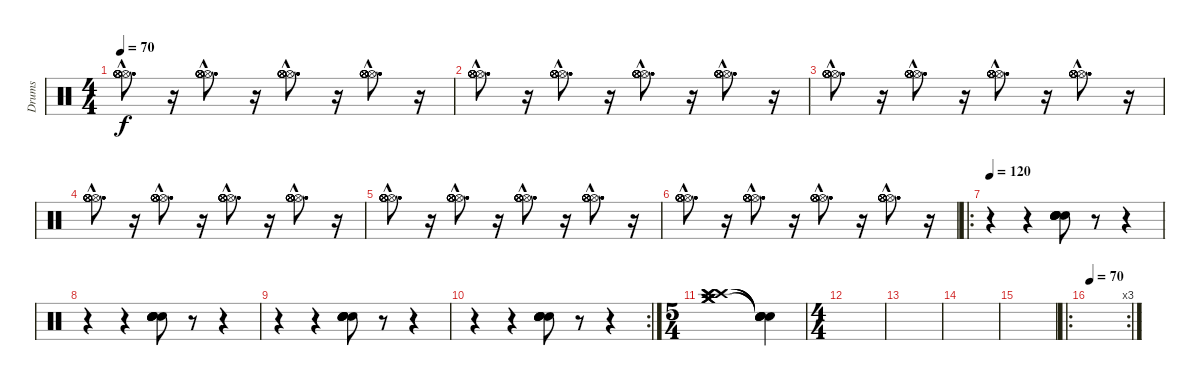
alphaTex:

\track ("Drums" "Drums") {instrument percussion}
\staff {score}
\articulation defaults
\ts (4 4)
\tempo 70
\clef neutral
\ks c
("Hi-Hat (open)"{hac} "Hi-Hat (open)"{hac} "Hi-Hat (open)"{hac} "Hi-Hat (open)"{hac} "Hi-Hat (open)"{hac} "Hi-Hat (open)"{hac}).8{d dy f} r.16 ("Hi-Hat (open)"{hac} "Hi-Hat (open)"{hac} "Hi-Hat (open)"{hac} "Hi-Hat (open)"{hac} "Hi-Hat (open)"{hac} "Hi-Hat (open)"{hac}).8{d} r.16 ("Hi-Hat (open)"{hac} "Hi-Hat (open)"{hac} "Hi-Hat (open)"{hac} "Hi-Hat (open)"{hac} "Hi-Hat (open)"{hac} "Hi-Hat (open)"{hac}).8{d} r.16 ("Hi-Hat (open)"{hac} "Hi-Hat (open)"{hac} "Hi-Hat (open)"{hac} "Hi-Hat (open)"{hac} "Hi-Hat (open)"{hac} "Hi-Hat (open)"{hac}).8{d} r.16 |
("Hi-Hat (open)"{hac} "Hi-Hat (open)"{hac} "Hi-Hat (open)"{hac} "Hi-Hat (open)"{hac} "Hi-Hat (open)"{hac} "Hi-Hat (open)"{hac}).8{d} r.16 ("Hi-Hat (open)"{hac} "Hi-Hat (open)"{hac} "Hi-Hat (open)"{hac} "Hi-Hat (open)"{hac} "Hi-Hat (open)"{hac} "Hi-Hat (open)"{hac}).8{d} r.16 ("Hi-Hat (open)"{hac} "Hi-Hat (open)"{hac} "Hi-Hat (open)"{hac} "Hi-Hat (open)"{hac} "Hi-Hat (open)"{hac} "Hi-Hat (open)"{hac}).8{d} r.16 ("Hi-Hat (open)"{hac} "Hi-Hat (open)"{hac} "Hi-Hat (open)"{hac} "Hi-Hat (open)"{hac} "Hi-Hat (open)"{hac} "Hi-Hat (open)"{hac}).8{d} r.16 |
("Hi-Hat (open)"{hac} "Hi-Hat (open)"{hac} "Hi-Hat (open)"{hac} "Hi-Hat (open)"{hac} "Hi-Hat (open)"{hac} "Hi-Hat (open)"{hac}).8{d} r.16 ("Hi-Hat (open)"{hac} "Hi-Hat (open)"{hac} "Hi-Hat (open)"{hac} "Hi-Hat (open)"{hac} "Hi-Hat (open)"{hac} "Hi-Hat (open)"{hac}).8{d} r.16 ("Hi-Hat (open)"{hac} "Hi-Hat (open)"{hac} "Hi-Hat (open)"{hac} "Hi-Hat (open)"{hac} "Hi-Hat (open)"{hac} "Hi-Hat (open)"{hac}).8{d} r.16 ("Hi-Hat (open)"{hac} "Hi-Hat (open)"{hac} "Hi-Hat (open)"{hac} "Hi-Hat (open)"{hac} "Hi-Hat (open)"{hac} "Hi-Hat (open)"{hac}).8{d} r.16 |
("Hi-Hat (open)"{hac} "Hi-Hat (open)"{hac} "Hi-Hat (open)"{hac} "Hi-Hat (open)"{hac} "Hi-Hat (open)"{hac} "Hi-Hat (open)"{hac}).8{d} r.16 ("Hi-Hat (open)"{hac} "Hi-Hat (open)"{hac} "Hi-Hat (open)"{hac} "Hi-Hat (open)"{hac} "Hi-Hat (open)"{hac} "Hi-Hat (open)"{hac}).8{d} r.16 ("Hi-Hat (open)"{hac} "Hi-Hat (open)"{hac} "Hi-Hat (open)"{hac} "Hi-Hat (open)"{hac} "Hi-Hat (open)"{hac} "Hi-Hat (open)"{hac}).8{d} r.16 ("Hi-Hat (open)"{hac} "Hi-Hat (open)"{hac} "Hi-Hat (open)"{hac} "Hi-Hat (open)"{hac} "Hi-Hat (open)"{hac} "Hi-Hat (open)"{hac}).8{d} r.16 |
("Hi-Hat (open)"{hac} "Hi-Hat (open)"{hac} "Hi-Hat (open)"{hac} "Hi-Hat (open)"{hac} "Hi-Hat (open)"{hac} "Hi-Hat (open)"{hac}).8{d} r.16 ("Hi-Hat (open)"{hac} "Hi-Hat (open)"{hac} "Hi-Hat (open)"{hac} "Hi-Hat (open)"{hac} "Hi-Hat (open)"{hac} "Hi-Hat (open)"{hac}).8{d} r.16 ("Hi-Hat (open)"{hac} "Hi-Hat (open)"{hac} "Hi-Hat (open)"{hac} "Hi-Hat (open)"{hac} "Hi-Hat (open)"{hac} "Hi-Hat (open)"{hac}).8{d} r.16 ("Hi-Hat (open)"{hac} "Hi-Hat (open)"{hac} "Hi-Hat (open)"{hac} "Hi-Hat (open)"{hac} "Hi-Hat (open)"{hac} "Hi-Hat (open)"{hac}).8{d} r.16 |
("Hi-Hat (open)"{hac} "Hi-Hat (open)"{hac} "Hi-Hat (open)"{hac} "Hi-Hat (open)"{hac} "Hi-Hat (open)"{hac} "Hi-Hat (open)"{hac}).8{d} r.16 ("Hi-Hat (open)"{hac} "Hi-Hat (open)"{hac} "Hi-Hat (open)"{hac} "Hi-Hat (open)"{hac} "Hi-Hat (open)"{hac} "Hi-Hat (open)"{hac}).8{d} r.16 ("Hi-Hat (open)"{hac} "Hi-Hat (open)"{hac} "Hi-Hat (open)"{hac} "Hi-Hat (open)"{hac} "Hi-Hat (open)"{hac} "Hi-Hat (open)"{hac}).8{d} r.16 ("Hi-Hat (open)"{hac} "Hi-Hat (open)"{hac} "Hi-Hat (open)"{hac} "Hi-Hat (open)"{hac} "Hi-Hat (open)"{hac} "Hi-Hat (open)"{hac}).8{d} r.16 |
\ro
\tempo 120
r.4 r.4 ("Snare (hit) 2" "Snare (hit) 2" "Snare (hit) 2" "Snare (hit) 2" "Snare (hit) 2").8 r.8 r.4 |
r.4 r.4 ("Snare (hit) 2" "Snare (hit) 2" "Snare (hit) 2" "Snare (hit) 2" "Snare (hit) 2").8 r.8 r.4 |
r.4 r.4 ("Snare (hit) 2" "Snare (hit) 2" "Snare (hit) 2" "Snare (hit) 2" "Snare (hit) 2").8 r.8 r.4 |
\rc 2
r.4 r.4 ("Snare (hit) 2" "Snare (hit) 2" "Snare (hit) 2" "Snare (hit) 2" "Snare (hit) 2").8 r.8 r.4 |
\ts (5 4)
("Crash high (hit)" "Crash high (hit)" "Crash high (hit)" "Crash medium (hit)" "Crash medium (hit)" "Crash medium (hit)").1 ("Snare (hit)"{t} "Snare (hit)"{t} "Snare (hit)"{t} "Snare (hit)"{t} "Snare (hit)"{t}).4 |
\ts (4 4)
|
|
|
|
\ro
\rc 3
\tempo 70
